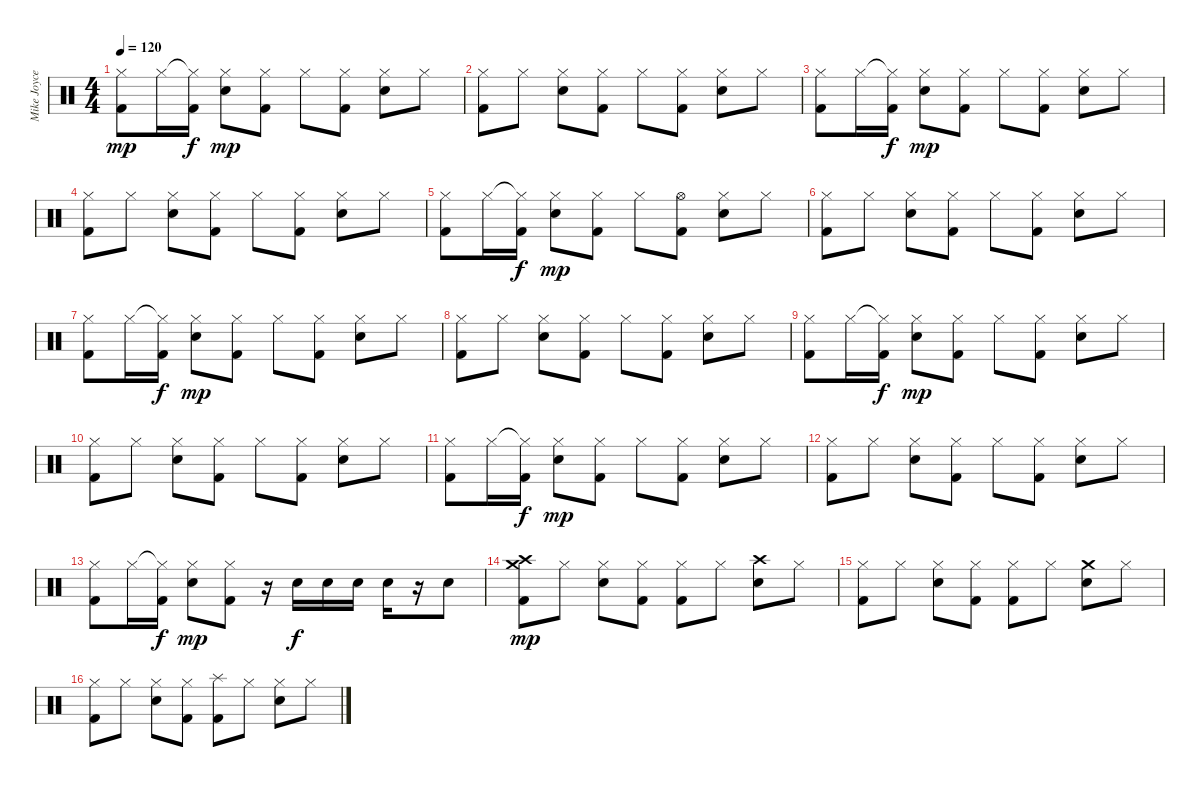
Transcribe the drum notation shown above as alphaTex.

\track ("Mike Joyce" "Mike Joyce") {instrument percussion}
\staff {score}
\articulation defaults
\ts (4 4)
\tempo 120
\clef neutral
\ks c
("Hi-Hat (closed)" "Kick (hit) 2").8{dy mp} "Hi-Hat (closed)".16 ("Hi-Hat (closed)"{t} "Kick (hit) 2").16{dy f} ("Hi-Hat (closed)" "Electric Snare (hit)").8{dy mp} ("Hi-Hat (closed)" "Kick (hit) 2").8 "Hi-Hat (closed)".8 ("Hi-Hat (closed)" "Kick (hit) 2").8 ("Hi-Hat (closed)" "Electric Snare (hit)").8 "Hi-Hat (closed)".8 |
("Hi-Hat (closed)" "Kick (hit) 2").8 "Hi-Hat (closed)".8 ("Hi-Hat (closed)" "Electric Snare (hit)").8 ("Hi-Hat (closed)" "Kick (hit) 2").8 "Hi-Hat (closed)".8 ("Hi-Hat (closed)" "Kick (hit) 2").8 ("Hi-Hat (closed)" "Electric Snare (hit)").8 "Hi-Hat (closed)".8 |
("Hi-Hat (closed)" "Kick (hit) 2").8 "Hi-Hat (closed)".16 ("Hi-Hat (closed)"{t} "Kick (hit) 2").16{dy f} ("Hi-Hat (closed)" "Electric Snare (hit)").8{dy mp} ("Hi-Hat (closed)" "Kick (hit) 2").8 "Hi-Hat (closed)".8 ("Hi-Hat (closed)" "Kick (hit) 2").8 ("Hi-Hat (closed)" "Electric Snare (hit)").8 "Hi-Hat (closed)".8 |
("Hi-Hat (closed)" "Kick (hit) 2").8 "Hi-Hat (closed)".8 ("Hi-Hat (closed)" "Electric Snare (hit)").8 ("Hi-Hat (closed)" "Kick (hit) 2").8 "Hi-Hat (closed)".8 ("Hi-Hat (closed)" "Kick (hit) 2").8 ("Hi-Hat (closed)" "Electric Snare (hit)").8 "Hi-Hat (closed)".8 |
("Hi-Hat (closed)" "Kick (hit) 2").8 "Hi-Hat (closed)".16 ("Hi-Hat (closed)"{t} "Kick (hit) 2").16{dy f} ("Hi-Hat (closed)" "Electric Snare (hit)").8{dy mp} ("Hi-Hat (closed)" "Kick (hit) 2").8 "Hi-Hat (closed)".8 ("Hi-Hat (open)" "Kick (hit) 2").8 ("Hi-Hat (closed)" "Electric Snare (hit)").8 "Hi-Hat (closed)".8 |
("Hi-Hat (closed)" "Kick (hit) 2").8 "Hi-Hat (closed)".8 ("Hi-Hat (closed)" "Electric Snare (hit)").8 ("Hi-Hat (closed)" "Kick (hit) 2").8 "Hi-Hat (closed)".8 ("Hi-Hat (closed)" "Kick (hit) 2").8 ("Hi-Hat (closed)" "Electric Snare (hit)").8 "Hi-Hat (closed)".8 |
("Hi-Hat (closed)" "Kick (hit) 2").8 "Hi-Hat (closed)".16 ("Hi-Hat (closed)"{t} "Kick (hit) 2").16{dy f} ("Hi-Hat (closed)" "Electric Snare (hit)").8{dy mp} ("Hi-Hat (closed)" "Kick (hit) 2").8 "Hi-Hat (closed)".8 ("Hi-Hat (closed)" "Kick (hit) 2").8 ("Hi-Hat (closed)" "Electric Snare (hit)").8 "Hi-Hat (closed)".8 |
("Hi-Hat (closed)" "Kick (hit) 2").8 "Hi-Hat (closed)".8 ("Hi-Hat (closed)" "Electric Snare (hit)").8 ("Hi-Hat (closed)" "Kick (hit) 2").8 "Hi-Hat (closed)".8 ("Hi-Hat (closed)" "Kick (hit) 2").8 ("Hi-Hat (closed)" "Electric Snare (hit)").8 "Hi-Hat (closed)".8 |
("Hi-Hat (closed)" "Kick (hit) 2").8 "Hi-Hat (closed)".16 ("Hi-Hat (closed)"{t} "Kick (hit) 2").16{dy f} ("Hi-Hat (closed)" "Electric Snare (hit)").8{dy mp} ("Hi-Hat (closed)" "Kick (hit) 2").8 "Hi-Hat (closed)".8 ("Hi-Hat (closed)" "Kick (hit) 2").8 ("Hi-Hat (closed)" "Electric Snare (hit)").8 "Hi-Hat (closed)".8 |
("Hi-Hat (closed)" "Kick (hit) 2").8 "Hi-Hat (closed)".8 ("Hi-Hat (closed)" "Electric Snare (hit)").8 ("Hi-Hat (closed)" "Kick (hit) 2").8 "Hi-Hat (closed)".8 ("Hi-Hat (closed)" "Kick (hit) 2").8 ("Hi-Hat (closed)" "Electric Snare (hit)").8 "Hi-Hat (closed)".8 |
("Hi-Hat (closed)" "Kick (hit) 2").8 "Hi-Hat (closed)".16 ("Hi-Hat (closed)"{t} "Kick (hit) 2").16{dy f} ("Hi-Hat (closed)" "Electric Snare (hit)").8{dy mp} ("Hi-Hat (closed)" "Kick (hit) 2").8 "Hi-Hat (closed)".8 ("Hi-Hat (closed)" "Kick (hit) 2").8 ("Hi-Hat (closed)" "Electric Snare (hit)").8 "Hi-Hat (closed)".8 |
("Hi-Hat (closed)" "Kick (hit) 2").8 "Hi-Hat (closed)".8 ("Hi-Hat (closed)" "Electric Snare (hit)").8 ("Hi-Hat (closed)" "Kick (hit) 2").8 "Hi-Hat (closed)".8 ("Hi-Hat (closed)" "Kick (hit) 2").8 ("Hi-Hat (closed)" "Electric Snare (hit)").8 "Hi-Hat (closed)".8 |
("Hi-Hat (closed)" "Kick (hit) 2").8 "Hi-Hat (closed)".16 ("Hi-Hat (closed)"{t} "Kick (hit) 2").16{dy f} ("Hi-Hat (closed)" "Electric Snare (hit)").8{dy mp} ("Hi-Hat (closed)" "Kick (hit) 2").8 r.16 "Electric Snare (hit)".16{dy f} "Electric Snare (hit)".16 "Electric Snare (hit)".16 "Electric Snare (hit)".16 r.16 "Electric Snare (hit)".8 |
("Crash high (hit)" "Crash medium (hit)" "Kick (hit) 2").8{dy mp} "Hi-Hat (closed)".8 ("Hi-Hat (closed)" "Electric Snare (hit)").8 ("Hi-Hat (closed)" "Kick (hit) 2").8 ("Hi-Hat (closed)" "Kick (hit) 2").8 "Hi-Hat (closed)".8 ("Crash high (hit)" "Electric Snare (hit)").8 "Hi-Hat (closed)".8 |
("Hi-Hat (closed)" "Kick (hit) 2").8 "Hi-Hat (closed)".8 ("Hi-Hat (closed)" "Electric Snare (hit)").8 ("Hi-Hat (closed)" "Kick (hit) 2").8 ("Hi-Hat (closed)" "Kick (hit) 2").8 "Hi-Hat (closed)".8 ("Crash medium (hit)" "Electric Snare (hit)").8 "Hi-Hat (closed)".8 |
("Hi-Hat (closed)" "Kick (hit) 2").8 "Hi-Hat (closed)".8 ("Hi-Hat (closed)" "Electric Snare (hit)").8 ("Hi-Hat (closed)" "Kick (hit) 2").8 ("Splash (hit)" "Kick (hit) 2").8 "Hi-Hat (closed)".8 ("Hi-Hat (closed)" "Electric Snare (hit)").8 "Hi-Hat (closed)".8
